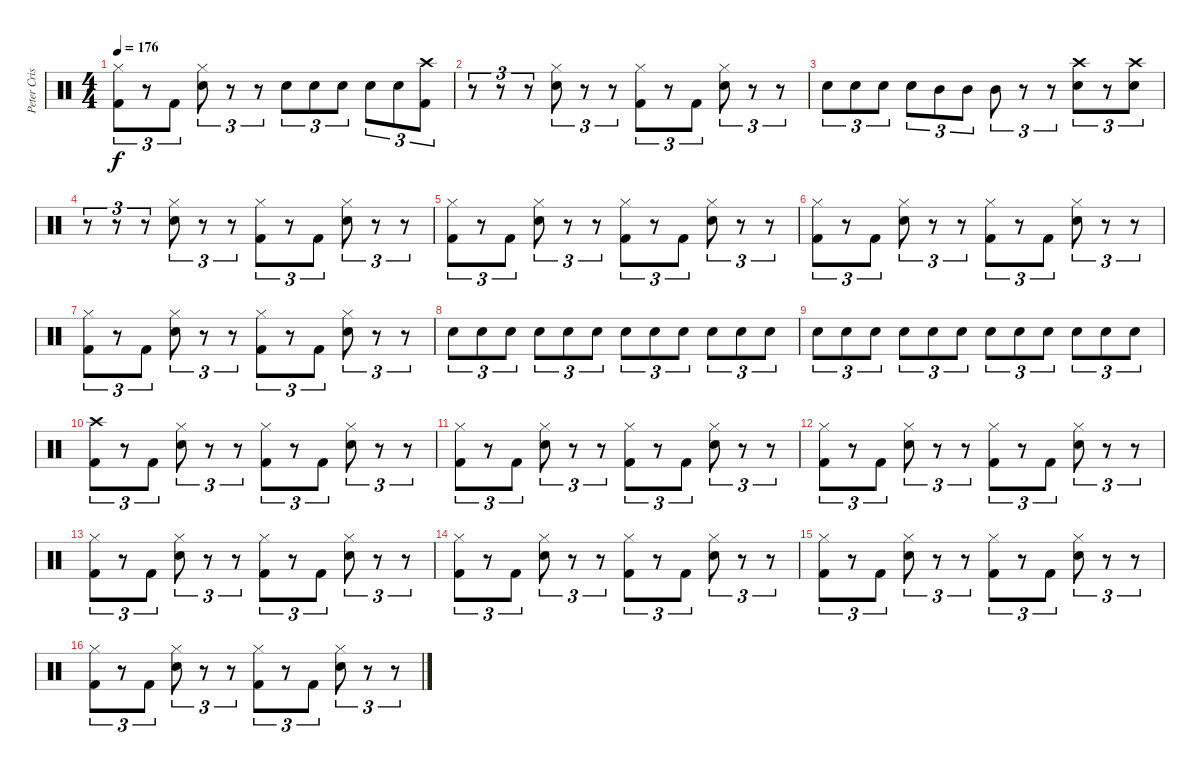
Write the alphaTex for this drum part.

\track ("Peter Criss" "Peter Cris") {instrument percussion}
\staff {score}
\articulation defaults
\ts (4 4)
\tempo 176
\clef neutral
\ks c
("Hi-Hat (closed)" "Kick (hit) 2").8{tu (3 2) dy f} r.8{tu (3 2)} "Kick (hit) 2".8{tu (3 2)} ("Hi-Hat (closed)" "Electric Snare (hit)").8{tu (3 2)} r.8{tu (3 2)} r.8{tu (3 2)} "Electric Snare (hit)".8{tu (3 2)} "Electric Snare (hit)".8{tu (3 2)} "Electric Snare (hit)".8{tu (3 2)} "Electric Snare (hit)".8{tu (3 2)} "Electric Snare (hit)".8{tu (3 2)} ("Crash high (hit)" "Kick (hit) 2").8{tu (3 2)} |
r.8{tu (3 2)} r.8{tu (3 2)} r.8{tu (3 2)} ("Hi-Hat (closed)" "Electric Snare (hit)").8{tu (3 2)} r.8{tu (3 2)} r.8{tu (3 2)} ("Hi-Hat (closed)" "Kick (hit) 2").8{tu (3 2)} r.8{tu (3 2)} "Kick (hit) 2".8{tu (3 2)} ("Hi-Hat (closed)" "Electric Snare (hit)").8{tu (3 2)} r.8{tu (3 2)} r.8{tu (3 2)} |
"Electric Snare (hit)".8{tu (3 2)} "Electric Snare (hit)".8{tu (3 2)} "Electric Snare (hit)".8{tu (3 2)} "Electric Snare (hit)".8{tu (3 2)} "Mid Tom (hit)".8{tu (3 2)} "Mid Tom (hit)".8{tu (3 2)} "Mid Tom (hit)".8{tu (3 2)} r.8{tu (3 2)} r.8{tu (3 2)} ("Crash high (hit)" "Electric Snare (hit)").8{tu (3 2)} r.8{tu (3 2)} ("Crash high (hit)" "Electric Snare (hit)").8{tu (3 2)} |
r.8{tu (3 2)} r.8{tu (3 2)} r.8{tu (3 2)} ("Hi-Hat (closed)" "Electric Snare (hit)").8{tu (3 2)} r.8{tu (3 2)} r.8{tu (3 2)} ("Hi-Hat (closed)" "Kick (hit) 2").8{tu (3 2)} r.8{tu (3 2)} "Kick (hit) 2".8{tu (3 2)} ("Hi-Hat (closed)" "Electric Snare (hit)").8{tu (3 2)} r.8{tu (3 2)} r.8{tu (3 2)} |
("Hi-Hat (closed)" "Kick (hit) 2").8{tu (3 2)} r.8{tu (3 2)} "Kick (hit) 2".8{tu (3 2)} ("Hi-Hat (closed)" "Electric Snare (hit)").8{tu (3 2)} r.8{tu (3 2)} r.8{tu (3 2)} ("Hi-Hat (closed)" "Kick (hit) 2").8{tu (3 2)} r.8{tu (3 2)} "Kick (hit) 2".8{tu (3 2)} ("Hi-Hat (closed)" "Electric Snare (hit)").8{tu (3 2)} r.8{tu (3 2)} r.8{tu (3 2)} |
("Hi-Hat (closed)" "Kick (hit) 2").8{tu (3 2)} r.8{tu (3 2)} "Kick (hit) 2".8{tu (3 2)} ("Hi-Hat (closed)" "Electric Snare (hit)").8{tu (3 2)} r.8{tu (3 2)} r.8{tu (3 2)} ("Hi-Hat (closed)" "Kick (hit) 2").8{tu (3 2)} r.8{tu (3 2)} "Kick (hit) 2".8{tu (3 2)} ("Hi-Hat (closed)" "Electric Snare (hit)").8{tu (3 2)} r.8{tu (3 2)} r.8{tu (3 2)} |
("Hi-Hat (closed)" "Kick (hit) 2").8{tu (3 2)} r.8{tu (3 2)} "Kick (hit) 2".8{tu (3 2)} ("Hi-Hat (closed)" "Electric Snare (hit)").8{tu (3 2)} r.8{tu (3 2)} r.8{tu (3 2)} ("Hi-Hat (closed)" "Kick (hit) 2").8{tu (3 2)} r.8{tu (3 2)} "Kick (hit) 2".8{tu (3 2)} ("Hi-Hat (closed)" "Electric Snare (hit)").8{tu (3 2)} r.8{tu (3 2)} r.8{tu (3 2)} |
"Electric Snare (hit)".8{tu (3 2)} "Electric Snare (hit)".8{tu (3 2)} "Electric Snare (hit)".8{tu (3 2)} "Electric Snare (hit)".8{tu (3 2)} "Electric Snare (hit)".8{tu (3 2)} "Electric Snare (hit)".8{tu (3 2)} "Electric Snare (hit)".8{tu (3 2)} "Electric Snare (hit)".8{tu (3 2)} "Electric Snare (hit)".8{tu (3 2)} "Electric Snare (hit)".8{tu (3 2)} "Electric Snare (hit)".8{tu (3 2)} "Electric Snare (hit)".8{tu (3 2)} |
"Electric Snare (hit)".8{tu (3 2)} "Electric Snare (hit)".8{tu (3 2)} "Electric Snare (hit)".8{tu (3 2)} "Electric Snare (hit)".8{tu (3 2)} "Electric Snare (hit)".8{tu (3 2)} "Electric Snare (hit)".8{tu (3 2)} "Electric Snare (hit)".8{tu (3 2)} "Electric Snare (hit)".8{tu (3 2)} "Electric Snare (hit)".8{tu (3 2)} "Electric Snare (hit)".8{tu (3 2)} "Electric Snare (hit)".8{tu (3 2)} "Electric Snare (hit)".8{tu (3 2)} |
("Crash high (hit)" "Kick (hit) 2").8{tu (3 2)} r.8{tu (3 2)} "Kick (hit) 2".8{tu (3 2)} ("Hi-Hat (closed)" "Electric Snare (hit)").8{tu (3 2)} r.8{tu (3 2)} r.8{tu (3 2)} ("Hi-Hat (closed)" "Kick (hit) 2").8{tu (3 2)} r.8{tu (3 2)} "Kick (hit) 2".8{tu (3 2)} ("Hi-Hat (closed)" "Electric Snare (hit)").8{tu (3 2)} r.8{tu (3 2)} r.8{tu (3 2)} |
("Hi-Hat (closed)" "Kick (hit) 2").8{tu (3 2)} r.8{tu (3 2)} "Kick (hit) 2".8{tu (3 2)} ("Hi-Hat (closed)" "Electric Snare (hit)").8{tu (3 2)} r.8{tu (3 2)} r.8{tu (3 2)} ("Hi-Hat (closed)" "Kick (hit) 2").8{tu (3 2)} r.8{tu (3 2)} "Kick (hit) 2".8{tu (3 2)} ("Hi-Hat (closed)" "Electric Snare (hit)").8{tu (3 2)} r.8{tu (3 2)} r.8{tu (3 2)} |
("Hi-Hat (closed)" "Kick (hit) 2").8{tu (3 2)} r.8{tu (3 2)} "Kick (hit) 2".8{tu (3 2)} ("Hi-Hat (closed)" "Electric Snare (hit)").8{tu (3 2)} r.8{tu (3 2)} r.8{tu (3 2)} ("Hi-Hat (closed)" "Kick (hit) 2").8{tu (3 2)} r.8{tu (3 2)} "Kick (hit) 2".8{tu (3 2)} ("Hi-Hat (closed)" "Electric Snare (hit)").8{tu (3 2)} r.8{tu (3 2)} r.8{tu (3 2)} |
("Hi-Hat (closed)" "Kick (hit) 2").8{tu (3 2)} r.8{tu (3 2)} "Kick (hit) 2".8{tu (3 2)} ("Hi-Hat (closed)" "Electric Snare (hit)").8{tu (3 2)} r.8{tu (3 2)} r.8{tu (3 2)} ("Hi-Hat (closed)" "Kick (hit) 2").8{tu (3 2)} r.8{tu (3 2)} "Kick (hit) 2".8{tu (3 2)} ("Hi-Hat (closed)" "Electric Snare (hit)").8{tu (3 2)} r.8{tu (3 2)} r.8{tu (3 2)} |
("Hi-Hat (closed)" "Kick (hit) 2").8{tu (3 2)} r.8{tu (3 2)} "Kick (hit) 2".8{tu (3 2)} ("Hi-Hat (closed)" "Electric Snare (hit)").8{tu (3 2)} r.8{tu (3 2)} r.8{tu (3 2)} ("Hi-Hat (closed)" "Kick (hit) 2").8{tu (3 2)} r.8{tu (3 2)} "Kick (hit) 2".8{tu (3 2)} ("Hi-Hat (closed)" "Electric Snare (hit)").8{tu (3 2)} r.8{tu (3 2)} r.8{tu (3 2)} |
("Hi-Hat (closed)" "Kick (hit) 2").8{tu (3 2)} r.8{tu (3 2)} "Kick (hit) 2".8{tu (3 2)} ("Hi-Hat (closed)" "Electric Snare (hit)").8{tu (3 2)} r.8{tu (3 2)} r.8{tu (3 2)} ("Hi-Hat (closed)" "Kick (hit) 2").8{tu (3 2)} r.8{tu (3 2)} "Kick (hit) 2".8{tu (3 2)} ("Hi-Hat (closed)" "Electric Snare (hit)").8{tu (3 2)} r.8{tu (3 2)} r.8{tu (3 2)} |
("Hi-Hat (closed)" "Kick (hit) 2").8{tu (3 2)} r.8{tu (3 2)} "Kick (hit) 2".8{tu (3 2)} ("Hi-Hat (closed)" "Electric Snare (hit)").8{tu (3 2)} r.8{tu (3 2)} r.8{tu (3 2)} ("Hi-Hat (closed)" "Kick (hit) 2").8{tu (3 2)} r.8{tu (3 2)} "Kick (hit) 2".8{tu (3 2)} ("Hi-Hat (closed)" "Electric Snare (hit)").8{tu (3 2)} r.8{tu (3 2)} r.8{tu (3 2)}
